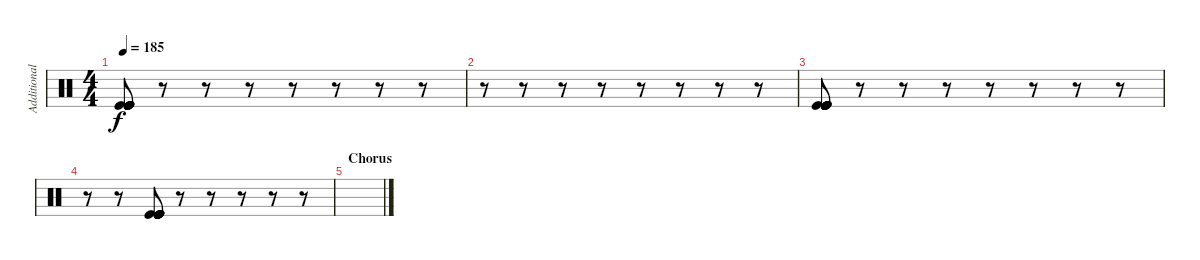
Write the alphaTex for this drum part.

\track ("Additional Bass" "Additional") {instrument percussion}
\staff {score}
\articulation defaults
\ts (4 4)
\tempo 185
\clef neutral
\ks c
("Kick (hit)" "Kick (hit)" "Kick (hit)" "Kick (hit)" "Kick (hit)" "Kick (hit)").8{dy f} r.8 r.8 r.8 r.8 r.8 r.8 r.8 |
r.8 r.8 r.8 r.8 r.8 r.8 r.8 r.8 |
("Kick (hit)" "Kick (hit)" "Kick (hit)" "Kick (hit)" "Kick (hit)" "Kick (hit)").8 r.8 r.8 r.8 r.8 r.8 r.8 r.8 |
r.8 r.8 ("Kick (hit)" "Kick (hit)" "Kick (hit)" "Kick (hit)" "Kick (hit)" "Kick (hit)").8 r.8 r.8 r.8 r.8 r.8 |
\section ("" "Chorus")
